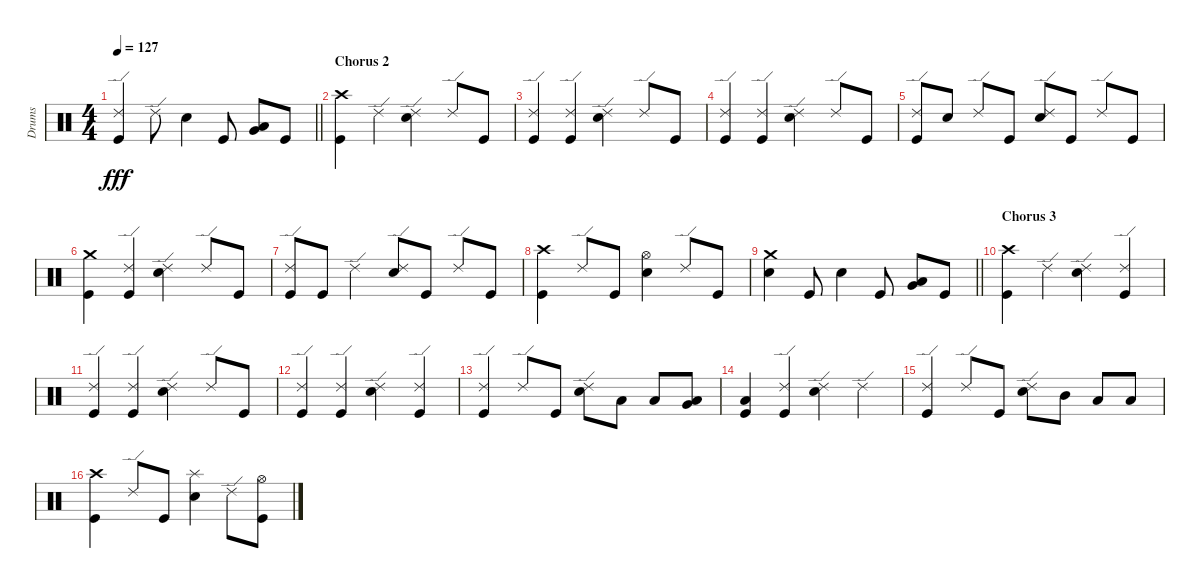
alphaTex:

\track ("Drums" "Drums") {instrument percussion}
\staff {score}
\articulation defaults
\ts (4 4)
\tempo 127
\clef neutral
\barLineRight lightlight
\ks c
("Kick (hit)" "Ride (edge) 2").4{dy fff} "Ride (edge) 2".8 "Snare (hit) 2".4 "Kick (hit)".8 ("Low Floor Tom (hit)" "Very Low Tom (hit)").8 "Kick (hit)".8 |
\section ("" "Chorus 2")
("Kick (hit)" "Crash high (hit)").4 "Ride (edge) 2".4 ("Snare (hit) 2" "Ride (edge) 2").4 "Ride (edge) 2".8 "Kick (hit)".8 |
("Kick (hit)" "Ride (edge) 2").4 ("Kick (hit)" "Ride (edge) 2").4 ("Snare (hit) 2" "Ride (edge) 2").4 "Ride (edge) 2".8 "Kick (hit)".8 |
("Kick (hit)" "Ride (edge) 2").4 ("Kick (hit)" "Ride (edge) 2").4 ("Snare (hit) 2" "Ride (edge) 2").4 "Ride (edge) 2".8 "Kick (hit)".8 |
("Kick (hit)" "Ride (edge) 2").8 "Snare (hit) 2".8 "Ride (edge) 2".8 "Kick (hit)".8 ("Snare (hit) 2" "Ride (edge) 2").8 "Kick (hit)".8 "Ride (edge) 2".8 "Kick (hit)".8 |
("Kick (hit)" "Crash medium (hit)").4 ("Kick (hit)" "Ride (edge) 2").4 ("Snare (hit) 2" "Ride (edge) 2").4 "Ride (edge) 2".8 "Kick (hit)".8 |
("Ride (edge) 2" "Kick (hit)").8 "Kick (hit)".8 "Ride (edge) 2".4 ("Ride (edge) 2" "Snare (hit) 2").8 "Kick (hit)".8 "Ride (edge) 2".8 "Kick (hit)".8 |
("Kick (hit)" "Crash high (hit)").4 "Ride (edge) 2".8 "Kick (hit)".8 ("Snare (hit) 2" "Hi-Hat (open)").4 "Ride (edge) 2".8 "Kick (hit)".8 |
\barLineRight lightlight
("Snare (hit) 2" "Crash medium (hit)").4 "Kick (hit)".8 "Snare (hit) 2".4 "Kick (hit)".8 ("Low Floor Tom (hit)" "Very Low Tom (hit)").8 "Kick (hit)".8 |
\section ("" "Chorus 3")
("Kick (hit)" "Crash high (hit)").4 "Ride (edge) 2".4 ("Snare (hit) 2" "Ride (edge) 2").4 ("Ride (edge) 2" "Kick (hit)").4 |
("Kick (hit)" "Ride (edge) 2").4 ("Kick (hit)" "Ride (edge) 2").4 ("Snare (hit) 2" "Ride (edge) 2").4 "Ride (edge) 2".8 "Kick (hit)".8 |
("Kick (hit)" "Ride (edge) 2").4 ("Kick (hit)" "Ride (edge) 2").4 ("Snare (hit) 2" "Ride (edge) 2").4 ("Kick (hit)" "Ride (edge) 2").4 |
("Kick (hit)" "Ride (edge) 2").4 "Ride (edge) 2".8 "Kick (hit)".8 ("Snare (hit) 2" "Ride (edge) 2").8 "Low Tom (hit)".8 "Low Tom (hit)".8 ("Very Low Tom (hit)" "Low Floor Tom (hit)").8 |
("Kick (hit)" "Low Floor Tom (hit)").4 ("Kick (hit)" "Ride (edge) 2").4 ("Snare (hit) 2" "Ride (edge) 2").4 "Ride (edge) 2".4 |
("Ride (edge) 2" "Kick (hit)").4 "Ride (edge) 2".8 "Kick (hit)".8 ("Ride (edge) 2" "Snare (hit) 2").8 "Mid Tom (hit)".8 "Low Tom (hit)".8 "Low Floor Tom (hit)".8 |
("Kick (hit)" "Crash high (hit)").4 "Ride (edge) 2".8 "Kick (hit)".8 ("Snare (hit) 2" "Splash (hit)").4 "Ride (edge) 2".8 ("Hi-Hat (open)" "Kick (hit)").8
